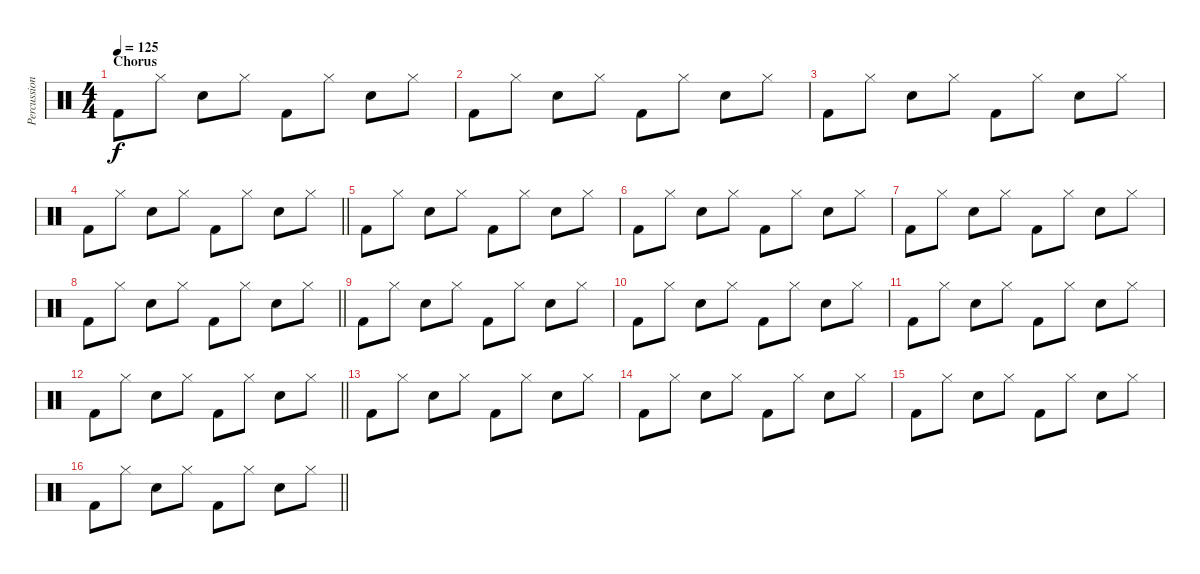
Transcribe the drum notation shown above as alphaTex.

\track ("Percussion" "Percussion") {instrument percussion}
\staff {score}
\articulation defaults
\ts (4 4)
\section ("" "Chorus")
\tempo 125
\clef neutral
\ks c "Kick (hit) 2".8{dy f} "Hi-Hat (closed)".8 "Electric Snare (hit)".8 "Hi-Hat (closed)".8 "Kick (hit) 2".8 "Hi-Hat (closed)".8 "Electric Snare (hit)".8 "Hi-Hat (closed)".8
|
"Kick (hit) 2".8 "Hi-Hat (closed)".8 "Electric Snare (hit)".8 "Hi-Hat (closed)".8 "Kick (hit) 2".8 "Hi-Hat (closed)".8 "Electric Snare (hit)".8 "Hi-Hat (closed)".8 |
"Kick (hit) 2".8 "Hi-Hat (closed)".8 "Electric Snare (hit)".8 "Hi-Hat (closed)".8 "Kick (hit) 2".8 "Hi-Hat (closed)".8 "Electric Snare (hit)".8 "Hi-Hat (closed)".8 |
\barLineRight lightlight "Kick (hit) 2".8 "Hi-Hat (closed)".8 "Electric Snare (hit)".8 "Hi-Hat (closed)".8 "Kick (hit) 2".8 "Hi-Hat (closed)".8 "Electric Snare (hit)".8 "Hi-Hat (closed)".8
|
"Kick (hit) 2".8 "Hi-Hat (closed)".8 "Electric Snare (hit)".8 "Hi-Hat (closed)".8 "Kick (hit) 2".8 "Hi-Hat (closed)".8 "Electric Snare (hit)".8 "Hi-Hat (closed)".8 |
"Kick (hit) 2".8 "Hi-Hat (closed)".8 "Electric Snare (hit)".8 "Hi-Hat (closed)".8 "Kick (hit) 2".8 "Hi-Hat (closed)".8 "Electric Snare (hit)".8 "Hi-Hat (closed)".8 |
"Kick (hit) 2".8 "Hi-Hat (closed)".8 "Electric Snare (hit)".8 "Hi-Hat (closed)".8 "Kick (hit) 2".8 "Hi-Hat (closed)".8 "Electric Snare (hit)".8 "Hi-Hat (closed)".8 |
\barLineRight lightlight "Kick (hit) 2".8 "Hi-Hat (closed)".8 "Electric Snare (hit)".8 "Hi-Hat (closed)".8 "Kick (hit) 2".8 "Hi-Hat (closed)".8 "Electric Snare (hit)".8 "Hi-Hat (closed)".8
|
"Kick (hit) 2".8 "Hi-Hat (closed)".8 "Electric Snare (hit)".8 "Hi-Hat (closed)".8 "Kick (hit) 2".8 "Hi-Hat (closed)".8 "Electric Snare (hit)".8 "Hi-Hat (closed)".8 |
"Kick (hit) 2".8 "Hi-Hat (closed)".8 "Electric Snare (hit)".8 "Hi-Hat (closed)".8 "Kick (hit) 2".8 "Hi-Hat (closed)".8 "Electric Snare (hit)".8 "Hi-Hat (closed)".8 |
"Kick (hit) 2".8 "Hi-Hat (closed)".8 "Electric Snare (hit)".8 "Hi-Hat (closed)".8 "Kick (hit) 2".8 "Hi-Hat (closed)".8 "Electric Snare (hit)".8 "Hi-Hat (closed)".8 |
\barLineRight lightlight "Kick (hit) 2".8 "Hi-Hat (closed)".8 "Electric Snare (hit)".8 "Hi-Hat (closed)".8 "Kick (hit) 2".8 "Hi-Hat (closed)".8 "Electric Snare (hit)".8 "Hi-Hat (closed)".8
|
"Kick (hit) 2".8 "Hi-Hat (closed)".8 "Electric Snare (hit)".8 "Hi-Hat (closed)".8 "Kick (hit) 2".8 "Hi-Hat (closed)".8 "Electric Snare (hit)".8 "Hi-Hat (closed)".8 |
"Kick (hit) 2".8 "Hi-Hat (closed)".8 "Electric Snare (hit)".8 "Hi-Hat (closed)".8 "Kick (hit) 2".8 "Hi-Hat (closed)".8 "Electric Snare (hit)".8 "Hi-Hat (closed)".8 |
"Kick (hit) 2".8 "Hi-Hat (closed)".8 "Electric Snare (hit)".8 "Hi-Hat (closed)".8 "Kick (hit) 2".8 "Hi-Hat (closed)".8 "Electric Snare (hit)".8 "Hi-Hat (closed)".8 |
\barLineRight lightlight "Kick (hit) 2".8 "Hi-Hat (closed)".8 "Electric Snare (hit)".8 "Hi-Hat (closed)".8 "Kick (hit) 2".8 "Hi-Hat (closed)".8 "Electric Snare (hit)".8 "Hi-Hat (closed)".8
